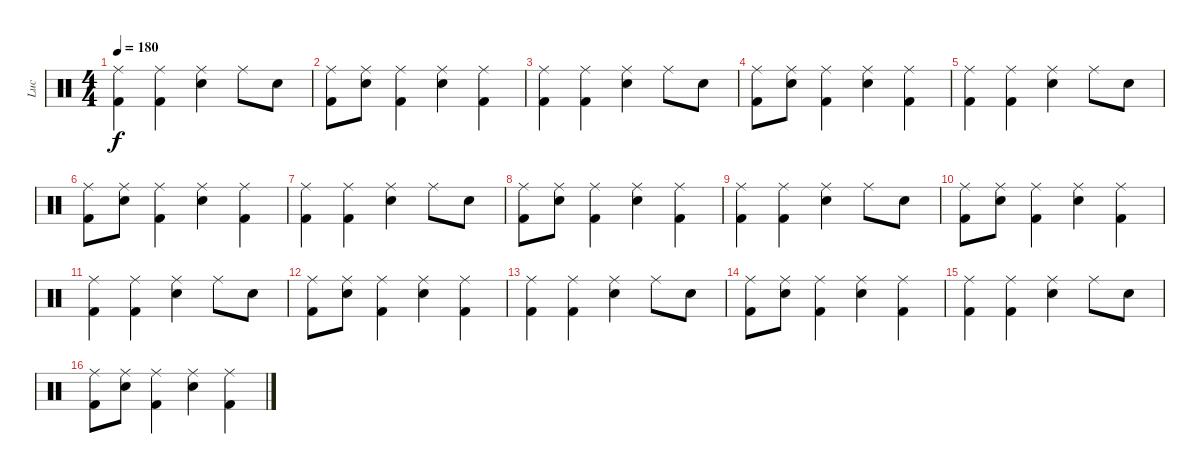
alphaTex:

\track ("Luc" "Luc") {instrument percussion}
\staff {score}
\articulation defaults
\ts (4 4)
\tempo 180
\clef neutral
\ks c
("Ride (middle)" "Kick (hit) 2").4{dy f} ("Ride (middle)" "Kick (hit) 2").4 ("Ride (middle)" "Snare (hit) 2").4 "Ride (middle)".8 "Snare (hit) 2".8 |
("Ride (middle)" "Kick (hit) 2").8 ("Ride (middle)" "Snare (hit) 2").8 ("Ride (middle)" "Kick (hit) 2").4 ("Ride (middle)" "Snare (hit) 2").4 ("Ride (middle)" "Kick (hit) 2").4 |
("Ride (middle)" "Kick (hit) 2").4 ("Ride (middle)" "Kick (hit) 2").4 ("Ride (middle)" "Snare (hit) 2").4 "Ride (middle)".8 "Snare (hit) 2".8 |
("Ride (middle)" "Kick (hit) 2").8 ("Ride (middle)" "Snare (hit) 2").8 ("Ride (middle)" "Kick (hit) 2").4 ("Ride (middle)" "Snare (hit) 2").4 ("Ride (middle)" "Kick (hit) 2").4 |
("Ride (middle)" "Kick (hit) 2").4 ("Ride (middle)" "Kick (hit) 2").4 ("Ride (middle)" "Snare (hit) 2").4 "Ride (middle)".8 "Snare (hit) 2".8 |
("Ride (middle)" "Kick (hit) 2").8 ("Ride (middle)" "Snare (hit) 2").8 ("Ride (middle)" "Kick (hit) 2").4 ("Ride (middle)" "Snare (hit) 2").4 ("Ride (middle)" "Kick (hit) 2").4 |
("Ride (middle)" "Kick (hit) 2").4 ("Ride (middle)" "Kick (hit) 2").4 ("Ride (middle)" "Snare (hit) 2").4 "Ride (middle)".8 "Snare (hit) 2".8 |
("Ride (middle)" "Kick (hit) 2").8 ("Ride (middle)" "Snare (hit) 2").8 ("Ride (middle)" "Kick (hit) 2").4 ("Ride (middle)" "Snare (hit) 2").4 ("Ride (middle)" "Kick (hit) 2").4 |
("Ride (middle)" "Kick (hit) 2").4 ("Ride (middle)" "Kick (hit) 2").4 ("Ride (middle)" "Snare (hit) 2").4 "Ride (middle)".8 "Snare (hit) 2".8 |
("Ride (middle)" "Kick (hit) 2").8 ("Ride (middle)" "Snare (hit) 2").8 ("Ride (middle)" "Kick (hit) 2").4 ("Ride (middle)" "Snare (hit) 2").4 ("Ride (middle)" "Kick (hit) 2").4 |
("Ride (middle)" "Kick (hit) 2").4 ("Ride (middle)" "Kick (hit) 2").4 ("Ride (middle)" "Snare (hit) 2").4 "Ride (middle)".8 "Snare (hit) 2".8 |
("Ride (middle)" "Kick (hit) 2").8 ("Ride (middle)" "Snare (hit) 2").8 ("Ride (middle)" "Kick (hit) 2").4 ("Ride (middle)" "Snare (hit) 2").4 ("Ride (middle)" "Kick (hit) 2").4 |
("Ride (middle)" "Kick (hit) 2").4 ("Ride (middle)" "Kick (hit) 2").4 ("Ride (middle)" "Snare (hit) 2").4 "Ride (middle)".8 "Snare (hit) 2".8 |
("Ride (middle)" "Kick (hit) 2").8 ("Ride (middle)" "Snare (hit) 2").8 ("Ride (middle)" "Kick (hit) 2").4 ("Ride (middle)" "Snare (hit) 2").4 ("Ride (middle)" "Kick (hit) 2").4 |
("Ride (middle)" "Kick (hit) 2").4 ("Ride (middle)" "Kick (hit) 2").4 ("Ride (middle)" "Snare (hit) 2").4 "Ride (middle)".8 "Snare (hit) 2".8 |
("Ride (middle)" "Kick (hit) 2").8 ("Ride (middle)" "Snare (hit) 2").8 ("Ride (middle)" "Kick (hit) 2").4 ("Ride (middle)" "Snare (hit) 2").4 ("Ride (middle)" "Kick (hit) 2").4
